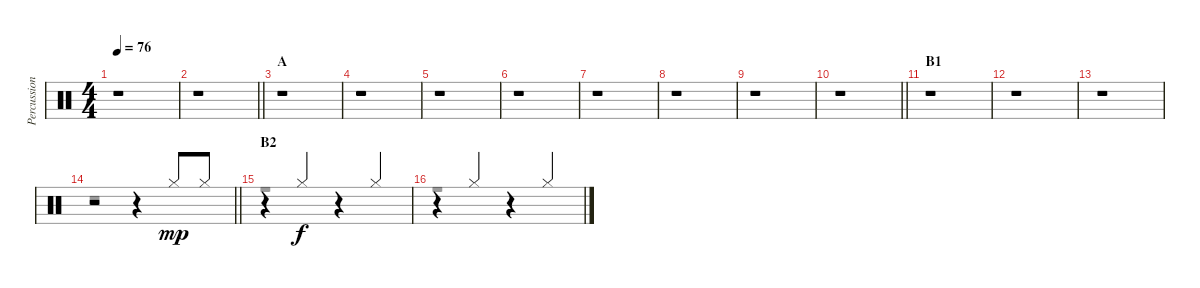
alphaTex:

\track ("Percussioni" "Percussion") {instrument percussion}
\staff {score}
\articulation defaults
\voice
\ts (4 4)
\tempo 76
\clef neutral
\ks c
r.1{dy mp} |
\barLineRight lightlight
r.1 |
\section ("" "A")
r.1 |
r.1 |
r.1 |
r.1 |
r.1 |
r.1 |
r.1 |
\barLineRight lightlight
r.1 |
\section ("" "B1")
r.1 |
r.1 |
r.1 |
\barLineRight lightlight
r.2 r.4 "Hi-Hat (closed)".8 "Hi-Hat (closed)".8 |
\section ("" "B2")
r.4 "Hi-Hat (closed)".4{dy f} r.4 "Hi-Hat (closed)".4 |
r.4 "Hi-Hat (closed)".4 r.4 "Hi-Hat (closed)".4
\voice
\clef neutral
\ottava regular
\simile none
\ks c
r.1{dy f} |
\barLineRight lightlight
r.1 |
r.1 |
r.1 |
r.1 |
r.1 |
r.1 |
r.1 |
r.1 |
\barLineRight lightlight
r.1 |
r.1 |
r.1 |
r.1 |
\barLineRight lightlight
r.1 |
r.1 |
r.1
